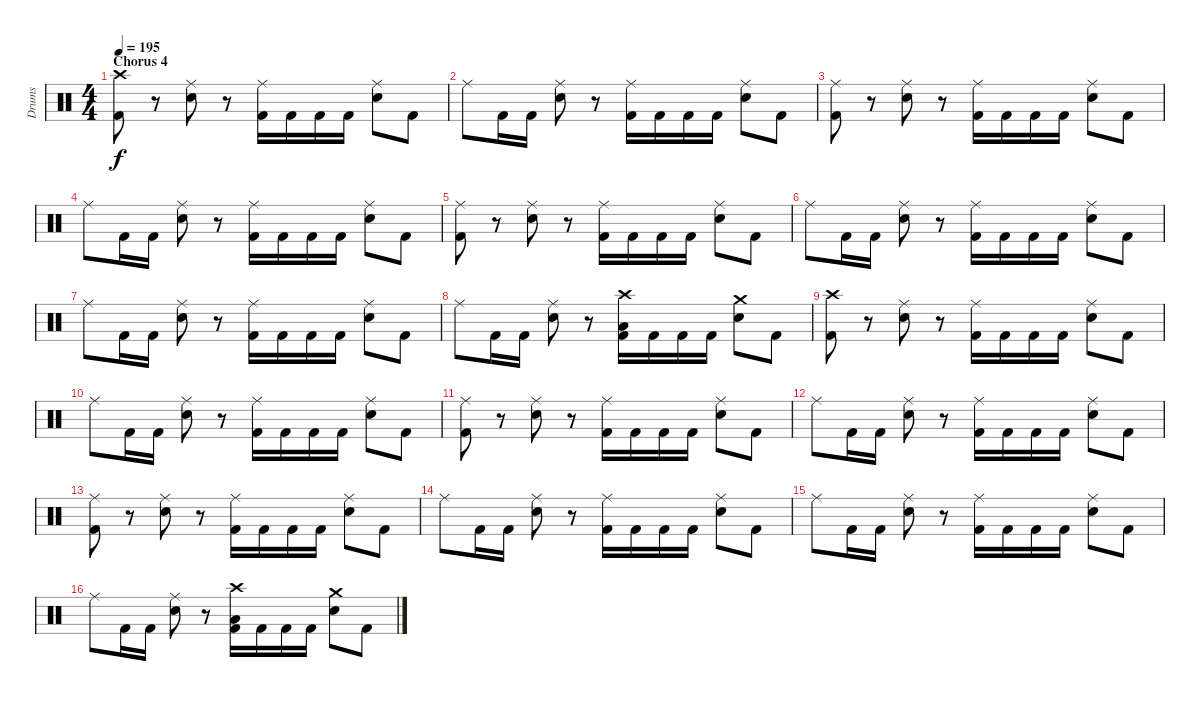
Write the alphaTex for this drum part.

\track ("Drums" "Drums") {instrument percussion}
\staff {score}
\articulation defaults
\ts (4 4)
\section ("" "Chorus 4")
\tempo 195
\clef neutral
\ks c
("Crash high (hit)" "Kick (hit) 2").8{dy f} r.8 ("Ride (middle)" "Snare (hit) 2").8 r.8 ("Ride (middle)" "Kick (hit) 2").16 "Kick (hit) 2".16 "Kick (hit) 2".16 "Kick (hit) 2".16 ("Ride (middle)" "Snare (hit) 2").8 "Kick (hit) 2".8 |
"Ride (middle)".8 "Kick (hit) 2".16 "Kick (hit) 2".16 ("Ride (middle)" "Snare (hit) 2").8 r.8 ("Ride (middle)" "Kick (hit) 2").16 "Kick (hit) 2".16 "Kick (hit) 2".16 "Kick (hit) 2".16 ("Ride (middle)" "Snare (hit) 2").8 "Kick (hit) 2".8 |
("Ride (middle)" "Kick (hit) 2").8 r.8 ("Ride (middle)" "Snare (hit) 2").8 r.8 ("Ride (middle)" "Kick (hit) 2").16 "Kick (hit) 2".16 "Kick (hit) 2".16 "Kick (hit) 2".16 ("Ride (middle)" "Snare (hit) 2").8 "Kick (hit) 2".8 |
"Ride (middle)".8 "Kick (hit) 2".16 "Kick (hit) 2".16 ("Ride (middle)" "Snare (hit) 2").8 r.8 ("Ride (middle)" "Kick (hit) 2").16 "Kick (hit) 2".16 "Kick (hit) 2".16 "Kick (hit) 2".16 ("Ride (middle)" "Snare (hit) 2").8 "Kick (hit) 2".8 |
("Ride (middle)" "Kick (hit) 2").8 r.8 ("Ride (middle)" "Snare (hit) 2").8 r.8 ("Ride (middle)" "Kick (hit) 2").16 "Kick (hit) 2".16 "Kick (hit) 2".16 "Kick (hit) 2".16 ("Ride (middle)" "Snare (hit) 2").8 "Kick (hit) 2".8 |
"Ride (middle)".8 "Kick (hit) 2".16 "Kick (hit) 2".16 ("Ride (middle)" "Snare (hit) 2").8 r.8 ("Ride (middle)" "Kick (hit) 2").16 "Kick (hit) 2".16 "Kick (hit) 2".16 "Kick (hit) 2".16 ("Ride (middle)" "Snare (hit) 2").8 "Kick (hit) 2".8 |
"Ride (middle)".8 "Kick (hit) 2".16 "Kick (hit) 2".16 ("Ride (middle)" "Snare (hit) 2").8 r.8 ("Ride (middle)" "Kick (hit) 2").16 "Kick (hit) 2".16 "Kick (hit) 2".16 "Kick (hit) 2".16 ("Ride (middle)" "Snare (hit) 2").8 "Kick (hit) 2".8 |
"Ride (middle)".8 "Kick (hit) 2".16 "Kick (hit) 2".16 ("Ride (middle)" "Snare (hit) 2").8 r.8 ("Crash high (hit)" "Low Floor Tom (hit)" "Kick (hit) 2").16 "Kick (hit) 2".16 "Kick (hit) 2".16 "Kick (hit) 2".16 ("Crash medium (hit)" "Snare (hit) 2").8 "Kick (hit) 2".8 |
("Crash high (hit)" "Kick (hit) 2").8 r.8 ("Ride (middle)" "Snare (hit) 2").8 r.8 ("Ride (middle)" "Kick (hit) 2").16 "Kick (hit) 2".16 "Kick (hit) 2".16 "Kick (hit) 2".16 ("Ride (middle)" "Snare (hit) 2").8 "Kick (hit) 2".8 |
"Ride (middle)".8 "Kick (hit) 2".16 "Kick (hit) 2".16 ("Ride (middle)" "Snare (hit) 2").8 r.8 ("Ride (middle)" "Kick (hit) 2").16 "Kick (hit) 2".16 "Kick (hit) 2".16 "Kick (hit) 2".16 ("Ride (middle)" "Snare (hit) 2").8 "Kick (hit) 2".8 |
("Ride (middle)" "Kick (hit) 2").8 r.8 ("Ride (middle)" "Snare (hit) 2").8 r.8 ("Ride (middle)" "Kick (hit) 2").16 "Kick (hit) 2".16 "Kick (hit) 2".16 "Kick (hit) 2".16 ("Ride (middle)" "Snare (hit) 2").8 "Kick (hit) 2".8 |
"Ride (middle)".8 "Kick (hit) 2".16 "Kick (hit) 2".16 ("Ride (middle)" "Snare (hit) 2").8 r.8 ("Ride (middle)" "Kick (hit) 2").16 "Kick (hit) 2".16 "Kick (hit) 2".16 "Kick (hit) 2".16 ("Ride (middle)" "Snare (hit) 2").8 "Kick (hit) 2".8 |
("Ride (middle)" "Kick (hit) 2").8 r.8 ("Ride (middle)" "Snare (hit) 2").8 r.8 ("Ride (middle)" "Kick (hit) 2").16 "Kick (hit) 2".16 "Kick (hit) 2".16 "Kick (hit) 2".16 ("Ride (middle)" "Snare (hit) 2").8 "Kick (hit) 2".8 |
"Ride (middle)".8 "Kick (hit) 2".16 "Kick (hit) 2".16 ("Ride (middle)" "Snare (hit) 2").8 r.8 ("Ride (middle)" "Kick (hit) 2").16 "Kick (hit) 2".16 "Kick (hit) 2".16 "Kick (hit) 2".16 ("Ride (middle)" "Snare (hit) 2").8 "Kick (hit) 2".8 |
"Ride (middle)".8 "Kick (hit) 2".16 "Kick (hit) 2".16 ("Ride (middle)" "Snare (hit) 2").8 r.8 ("Ride (middle)" "Kick (hit) 2").16 "Kick (hit) 2".16 "Kick (hit) 2".16 "Kick (hit) 2".16 ("Ride (middle)" "Snare (hit) 2").8 "Kick (hit) 2".8 |
"Ride (middle)".8 "Kick (hit) 2".16 "Kick (hit) 2".16 ("Ride (middle)" "Snare (hit) 2").8 r.8 ("Crash high (hit)" "Low Floor Tom (hit)" "Kick (hit) 2").16 "Kick (hit) 2".16 "Kick (hit) 2".16 "Kick (hit) 2".16 ("Crash medium (hit)" "Snare (hit) 2").8 "Kick (hit) 2".8
